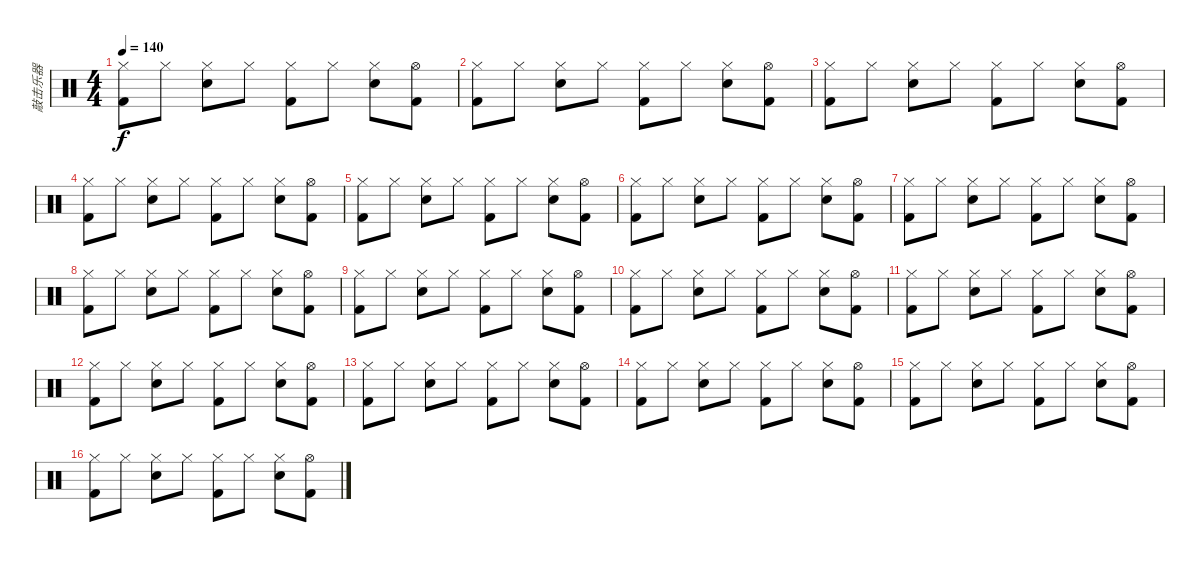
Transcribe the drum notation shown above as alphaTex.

\track ("敲击乐器" "敲击乐器") {instrument percussion}
\staff {score}
\articulation defaults
\ts (4 4)
\tempo 140
\clef neutral
\ks c
("Hi-Hat (closed)" "Kick (hit) 2").8{dy f} "Hi-Hat (closed)".8 ("Hi-Hat (closed)" "Electric Snare (hit)").8 "Hi-Hat (closed)".8 ("Hi-Hat (closed)" "Kick (hit) 2").8 "Hi-Hat (closed)".8 ("Hi-Hat (closed)" "Electric Snare (hit)").8 ("Hi-Hat (open)" "Kick (hit) 2").8 |
("Hi-Hat (closed)" "Kick (hit) 2").8 "Hi-Hat (closed)".8 ("Hi-Hat (closed)" "Electric Snare (hit)").8 "Hi-Hat (closed)".8 ("Hi-Hat (closed)" "Kick (hit) 2").8 "Hi-Hat (closed)".8 ("Hi-Hat (closed)" "Electric Snare (hit)").8 ("Hi-Hat (open)" "Kick (hit) 2").8 |
("Hi-Hat (closed)" "Kick (hit) 2").8 "Hi-Hat (closed)".8 ("Hi-Hat (closed)" "Electric Snare (hit)").8 "Hi-Hat (closed)".8 ("Hi-Hat (closed)" "Kick (hit) 2").8 "Hi-Hat (closed)".8 ("Hi-Hat (closed)" "Electric Snare (hit)").8 ("Hi-Hat (open)" "Kick (hit) 2").8 |
("Hi-Hat (closed)" "Kick (hit) 2").8 "Hi-Hat (closed)".8 ("Hi-Hat (closed)" "Electric Snare (hit)").8 "Hi-Hat (closed)".8 ("Hi-Hat (closed)" "Kick (hit) 2").8 "Hi-Hat (closed)".8 ("Hi-Hat (closed)" "Electric Snare (hit)").8 ("Hi-Hat (open)" "Kick (hit) 2").8 |
("Hi-Hat (closed)" "Kick (hit) 2").8 "Hi-Hat (closed)".8 ("Hi-Hat (closed)" "Electric Snare (hit)").8 "Hi-Hat (closed)".8 ("Hi-Hat (closed)" "Kick (hit) 2").8 "Hi-Hat (closed)".8 ("Hi-Hat (closed)" "Electric Snare (hit)").8 ("Hi-Hat (open)" "Kick (hit) 2").8 |
("Hi-Hat (closed)" "Kick (hit) 2").8 "Hi-Hat (closed)".8 ("Hi-Hat (closed)" "Electric Snare (hit)").8 "Hi-Hat (closed)".8 ("Hi-Hat (closed)" "Kick (hit) 2").8 "Hi-Hat (closed)".8 ("Hi-Hat (closed)" "Electric Snare (hit)").8 ("Hi-Hat (open)" "Kick (hit) 2").8 |
("Hi-Hat (closed)" "Kick (hit) 2").8 "Hi-Hat (closed)".8 ("Hi-Hat (closed)" "Electric Snare (hit)").8 "Hi-Hat (closed)".8 ("Hi-Hat (closed)" "Kick (hit) 2").8 "Hi-Hat (closed)".8 ("Hi-Hat (closed)" "Electric Snare (hit)").8 ("Hi-Hat (open)" "Kick (hit) 2").8 |
("Hi-Hat (closed)" "Kick (hit) 2").8 "Hi-Hat (closed)".8 ("Hi-Hat (closed)" "Electric Snare (hit)").8 "Hi-Hat (closed)".8 ("Hi-Hat (closed)" "Kick (hit) 2").8 "Hi-Hat (closed)".8 ("Hi-Hat (closed)" "Electric Snare (hit)").8 ("Hi-Hat (open)" "Kick (hit) 2").8 |
("Hi-Hat (closed)" "Kick (hit) 2").8 "Hi-Hat (closed)".8 ("Hi-Hat (closed)" "Electric Snare (hit)").8 "Hi-Hat (closed)".8 ("Hi-Hat (closed)" "Kick (hit) 2").8 "Hi-Hat (closed)".8 ("Hi-Hat (closed)" "Electric Snare (hit)").8 ("Hi-Hat (open)" "Kick (hit) 2").8 |
("Hi-Hat (closed)" "Kick (hit) 2").8 "Hi-Hat (closed)".8 ("Hi-Hat (closed)" "Electric Snare (hit)").8 "Hi-Hat (closed)".8 ("Hi-Hat (closed)" "Kick (hit) 2").8 "Hi-Hat (closed)".8 ("Hi-Hat (closed)" "Electric Snare (hit)").8 ("Hi-Hat (open)" "Kick (hit) 2").8 |
("Hi-Hat (closed)" "Kick (hit) 2").8 "Hi-Hat (closed)".8 ("Hi-Hat (closed)" "Electric Snare (hit)").8 "Hi-Hat (closed)".8 ("Hi-Hat (closed)" "Kick (hit) 2").8 "Hi-Hat (closed)".8 ("Hi-Hat (closed)" "Electric Snare (hit)").8 ("Hi-Hat (open)" "Kick (hit) 2").8 |
("Hi-Hat (closed)" "Kick (hit) 2").8 "Hi-Hat (closed)".8 ("Hi-Hat (closed)" "Electric Snare (hit)").8 "Hi-Hat (closed)".8 ("Hi-Hat (closed)" "Kick (hit) 2").8 "Hi-Hat (closed)".8 ("Hi-Hat (closed)" "Electric Snare (hit)").8 ("Hi-Hat (open)" "Kick (hit) 2").8 |
("Hi-Hat (closed)" "Kick (hit) 2").8 "Hi-Hat (closed)".8 ("Hi-Hat (closed)" "Electric Snare (hit)").8 "Hi-Hat (closed)".8 ("Hi-Hat (closed)" "Kick (hit) 2").8 "Hi-Hat (closed)".8 ("Hi-Hat (closed)" "Electric Snare (hit)").8 ("Hi-Hat (open)" "Kick (hit) 2").8 |
("Hi-Hat (closed)" "Kick (hit) 2").8 "Hi-Hat (closed)".8 ("Hi-Hat (closed)" "Electric Snare (hit)").8 "Hi-Hat (closed)".8 ("Hi-Hat (closed)" "Kick (hit) 2").8 "Hi-Hat (closed)".8 ("Hi-Hat (closed)" "Electric Snare (hit)").8 ("Hi-Hat (open)" "Kick (hit) 2").8 |
("Hi-Hat (closed)" "Kick (hit) 2").8 "Hi-Hat (closed)".8 ("Hi-Hat (closed)" "Electric Snare (hit)").8 "Hi-Hat (closed)".8 ("Hi-Hat (closed)" "Kick (hit) 2").8 "Hi-Hat (closed)".8 ("Hi-Hat (closed)" "Electric Snare (hit)").8 ("Hi-Hat (open)" "Kick (hit) 2").8 |
("Hi-Hat (closed)" "Kick (hit) 2").8 "Hi-Hat (closed)".8 ("Hi-Hat (closed)" "Electric Snare (hit)").8 "Hi-Hat (closed)".8 ("Hi-Hat (closed)" "Kick (hit) 2").8 "Hi-Hat (closed)".8 ("Hi-Hat (closed)" "Electric Snare (hit)").8 ("Hi-Hat (open)" "Kick (hit) 2").8
